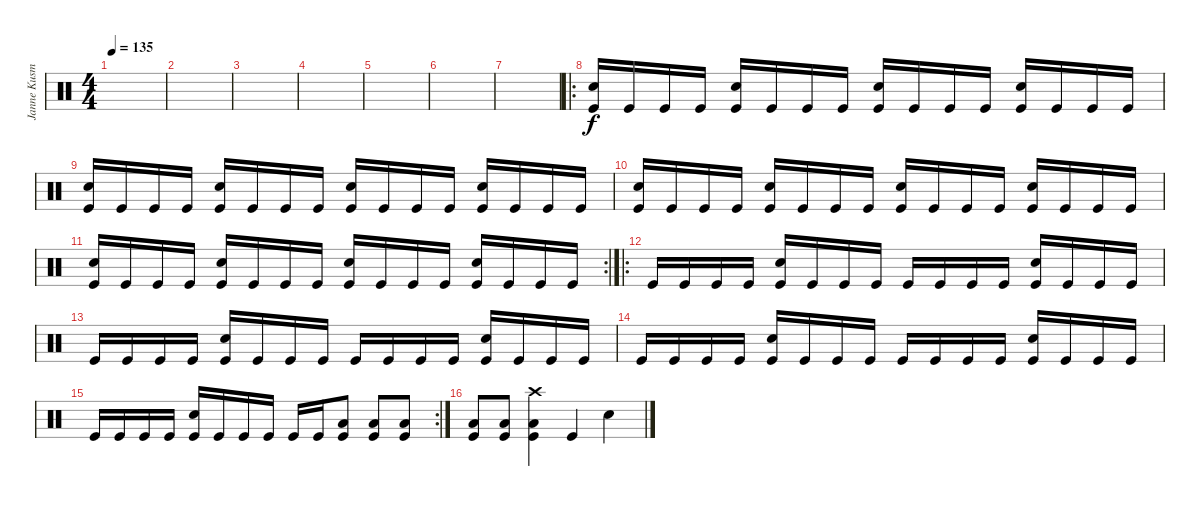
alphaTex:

\track ("Janne Kusmin" "Janne Kusm") {instrument percussion}
\staff {score}
\articulation defaults
\ts (4 4)
\tempo 135
\clef neutral
\ks c
|
|
|
|
|
|
|
\ro
("Snare (hit) 2" "Kick (hit)").16 "Kick (hit)".16 "Kick (hit)".16 "Kick (hit)".16 ("Snare (hit) 2" "Kick (hit)").16 "Kick (hit)".16 "Kick (hit)".16 "Kick (hit)".16 ("Snare (hit) 2" "Kick (hit)").16 "Kick (hit)".16 "Kick (hit)".16 "Kick (hit)".16 ("Snare (hit) 2" "Kick (hit)").16 "Kick (hit)".16 "Kick (hit)".16 "Kick (hit)".16 |
("Snare (hit) 2" "Kick (hit)").16 "Kick (hit)".16 "Kick (hit)".16 "Kick (hit)".16 ("Snare (hit) 2" "Kick (hit)").16 "Kick (hit)".16 "Kick (hit)".16 "Kick (hit)".16 ("Snare (hit) 2" "Kick (hit)").16 "Kick (hit)".16 "Kick (hit)".16 "Kick (hit)".16 ("Snare (hit) 2" "Kick (hit)").16 "Kick (hit)".16 "Kick (hit)".16 "Kick (hit)".16 |
("Snare (hit) 2" "Kick (hit)").16 "Kick (hit)".16 "Kick (hit)".16 "Kick (hit)".16 ("Snare (hit) 2" "Kick (hit)").16 "Kick (hit)".16 "Kick (hit)".16 "Kick (hit)".16 ("Snare (hit) 2" "Kick (hit)").16 "Kick (hit)".16 "Kick (hit)".16 "Kick (hit)".16 ("Snare (hit) 2" "Kick (hit)").16 "Kick (hit)".16 "Kick (hit)".16 "Kick (hit)".16 |
\rc 2
("Snare (hit) 2" "Kick (hit)").16 "Kick (hit)".16 "Kick (hit)".16 "Kick (hit)".16 ("Snare (hit) 2" "Kick (hit)").16 "Kick (hit)".16 "Kick (hit)".16 "Kick (hit)".16 ("Snare (hit) 2" "Kick (hit)").16 "Kick (hit)".16 "Kick (hit)".16 "Kick (hit)".16 ("Snare (hit) 2" "Kick (hit)").16 "Kick (hit)".16 "Kick (hit)".16 "Kick (hit)".16 |
\ro "Kick (hit)".16 "Kick (hit)".16 "Kick (hit)".16 "Kick (hit)".16
("Snare (hit) 2" "Kick (hit)").16 "Kick (hit)".16 "Kick (hit)".16 "Kick (hit)".16 "Kick (hit)".16 "Kick (hit)".16 "Kick (hit)".16 "Kick (hit)".16 ("Snare (hit) 2" "Kick (hit)").16 "Kick (hit)".16 "Kick (hit)".16 "Kick (hit)".16 |
"Kick (hit)".16 "Kick (hit)".16 "Kick (hit)".16 "Kick (hit)".16 ("Snare (hit) 2" "Kick (hit)").16 "Kick (hit)".16 "Kick (hit)".16 "Kick (hit)".16 "Kick (hit)".16 "Kick (hit)".16 "Kick (hit)".16 "Kick (hit)".16 ("Snare (hit) 2" "Kick (hit)").16 "Kick (hit)".16 "Kick (hit)".16 "Kick (hit)".16 |
"Kick (hit)".16 "Kick (hit)".16 "Kick (hit)".16 "Kick (hit)".16 ("Snare (hit) 2" "Kick (hit)").16 "Kick (hit)".16 "Kick (hit)".16 "Kick (hit)".16 "Kick (hit)".16 "Kick (hit)".16 "Kick (hit)".16 "Kick (hit)".16 ("Snare (hit) 2" "Kick (hit)").16 "Kick (hit)".16 "Kick (hit)".16 "Kick (hit)".16 |
\rc 2 "Kick (hit)".16 "Kick (hit)".16 "Kick (hit)".16 "Kick (hit)".16
("Snare (hit) 2" "Kick (hit)").16 "Kick (hit)".16 "Kick (hit)".16 "Kick (hit)".16 "Kick (hit)".16 "Kick (hit)".16 ("Low Tom (hit)" "Kick (hit)").8 ("Low Tom (hit)" "Kick (hit)").8 ("Low Tom (hit)" "Kick (hit)").8 |
("Low Tom (hit)" "Kick (hit)").8 ("Low Tom (hit)" "Kick (hit)").8 ("Crash high (hit)" "Low Tom (hit)" "Kick (hit)").4 "Kick (hit)".4 "Electric Snare (hit)".4
